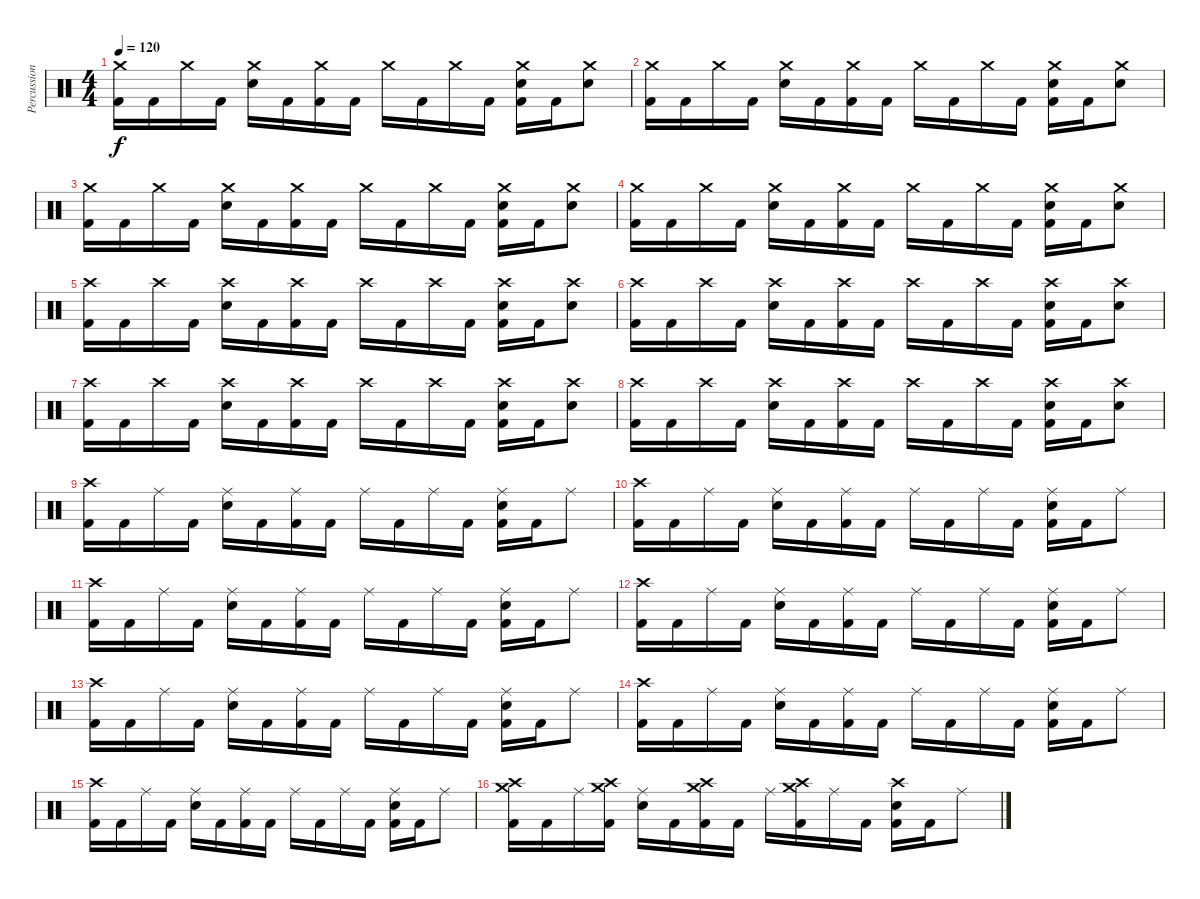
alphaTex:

\track ("Percussions" "Percussion") {instrument percussion}
\staff {score}
\articulation defaults
\ts (4 4)
\tempo 120
\clef neutral
\ks c
("Crash medium (hit)" "Kick (hit) 2").16{dy f} "Kick (hit) 2".16 "Crash medium (hit)".16 "Kick (hit) 2".16 ("Electric Snare (hit)" "Crash medium (hit)").16 "Kick (hit) 2".16 ("Crash medium (hit)" "Kick (hit) 2").16 "Kick (hit) 2".16 "Crash medium (hit)".16 "Kick (hit) 2".16 "Crash medium (hit)".16 "Kick (hit) 2".16 ("Electric Snare (hit)" "Crash medium (hit)" "Kick (hit) 2").16 "Kick (hit) 2".16 ("Electric Snare (hit)" "Crash medium (hit)").8 |
("Crash medium (hit)" "Kick (hit) 2").16 "Kick (hit) 2".16 "Crash medium (hit)".16 "Kick (hit) 2".16 ("Electric Snare (hit)" "Crash medium (hit)").16 "Kick (hit) 2".16 ("Crash medium (hit)" "Kick (hit) 2").16 "Kick (hit) 2".16 "Crash medium (hit)".16 "Kick (hit) 2".16 "Crash medium (hit)".16 "Kick (hit) 2".16 ("Electric Snare (hit)" "Crash medium (hit)" "Kick (hit) 2").16 "Kick (hit) 2".16 ("Electric Snare (hit)" "Crash medium (hit)").8 |
("Crash medium (hit)" "Kick (hit) 2").16 "Kick (hit) 2".16 "Crash medium (hit)".16 "Kick (hit) 2".16 ("Electric Snare (hit)" "Crash medium (hit)").16 "Kick (hit) 2".16 ("Crash medium (hit)" "Kick (hit) 2").16 "Kick (hit) 2".16 "Crash medium (hit)".16 "Kick (hit) 2".16 "Crash medium (hit)".16 "Kick (hit) 2".16 ("Electric Snare (hit)" "Crash medium (hit)" "Kick (hit) 2").16 "Kick (hit) 2".16 ("Electric Snare (hit)" "Crash medium (hit)").8 |
("Crash medium (hit)" "Kick (hit) 2").16 "Kick (hit) 2".16 "Crash medium (hit)".16 "Kick (hit) 2".16 ("Electric Snare (hit)" "Crash medium (hit)").16 "Kick (hit) 2".16 ("Crash medium (hit)" "Kick (hit) 2").16 "Kick (hit) 2".16 "Crash medium (hit)".16 "Kick (hit) 2".16 "Crash medium (hit)".16 "Kick (hit) 2".16 ("Electric Snare (hit)" "Crash medium (hit)" "Kick (hit) 2").16 "Kick (hit) 2".16 ("Electric Snare (hit)" "Crash medium (hit)").8 |
("Crash high (hit)" "Kick (hit) 2").16 "Kick (hit) 2".16 "Crash high (hit)".16 "Kick (hit) 2".16 ("Electric Snare (hit)" "Crash high (hit)").16 "Kick (hit) 2".16 ("Crash high (hit)" "Kick (hit) 2").16 "Kick (hit) 2".16 "Crash high (hit)".16 "Kick (hit) 2".16 "Crash high (hit)".16 "Kick (hit) 2".16 ("Electric Snare (hit)" "Crash high (hit)" "Kick (hit) 2").16 "Kick (hit) 2".16 ("Electric Snare (hit)" "Crash high (hit)").8 |
("Crash high (hit)" "Kick (hit) 2").16 "Kick (hit) 2".16 "Crash high (hit)".16 "Kick (hit) 2".16 ("Electric Snare (hit)" "Crash high (hit)").16 "Kick (hit) 2".16 ("Crash high (hit)" "Kick (hit) 2").16 "Kick (hit) 2".16 "Crash high (hit)".16 "Kick (hit) 2".16 "Crash high (hit)".16 "Kick (hit) 2".16 ("Electric Snare (hit)" "Crash high (hit)" "Kick (hit) 2").16 "Kick (hit) 2".16 ("Electric Snare (hit)" "Crash high (hit)").8 |
("Crash high (hit)" "Kick (hit) 2").16 "Kick (hit) 2".16 "Crash high (hit)".16 "Kick (hit) 2".16 ("Electric Snare (hit)" "Crash high (hit)").16 "Kick (hit) 2".16 ("Crash high (hit)" "Kick (hit) 2").16 "Kick (hit) 2".16 "Crash high (hit)".16 "Kick (hit) 2".16 "Crash high (hit)".16 "Kick (hit) 2".16 ("Electric Snare (hit)" "Crash high (hit)" "Kick (hit) 2").16 "Kick (hit) 2".16 ("Electric Snare (hit)" "Crash high (hit)").8 |
("Crash high (hit)" "Kick (hit) 2").16 "Kick (hit) 2".16 "Crash high (hit)".16 "Kick (hit) 2".16 ("Electric Snare (hit)" "Crash high (hit)").16 "Kick (hit) 2".16 ("Crash high (hit)" "Kick (hit) 2").16 "Kick (hit) 2".16 "Crash high (hit)".16 "Kick (hit) 2".16 "Crash high (hit)".16 "Kick (hit) 2".16 ("Electric Snare (hit)" "Crash high (hit)" "Kick (hit) 2").16 "Kick (hit) 2".16 ("Electric Snare (hit)" "Crash high (hit)").8 |
("Crash high (hit)" "Kick (hit) 2").16 "Kick (hit) 2".16 "Ride (middle)".16 "Kick (hit) 2".16 ("Electric Snare (hit)" "Ride (middle)").16 "Kick (hit) 2".16 ("Ride (middle)" "Kick (hit) 2").16 "Kick (hit) 2".16 "Ride (middle)".16 "Kick (hit) 2".16 "Ride (middle)".16 "Kick (hit) 2".16 ("Electric Snare (hit)" "Ride (middle)" "Kick (hit) 2").16 "Kick (hit) 2".16 "Ride (middle)".8 |
("Crash high (hit)" "Kick (hit) 2").16 "Kick (hit) 2".16 "Ride (middle)".16 "Kick (hit) 2".16 ("Electric Snare (hit)" "Ride (middle)").16 "Kick (hit) 2".16 ("Ride (middle)" "Kick (hit) 2").16 "Kick (hit) 2".16 "Ride (middle)".16 "Kick (hit) 2".16 "Ride (middle)".16 "Kick (hit) 2".16 ("Electric Snare (hit)" "Ride (middle)" "Kick (hit) 2").16 "Kick (hit) 2".16 "Ride (middle)".8 |
("Crash high (hit)" "Kick (hit) 2").16 "Kick (hit) 2".16 "Ride (middle)".16 "Kick (hit) 2".16 ("Electric Snare (hit)" "Ride (middle)").16 "Kick (hit) 2".16 ("Ride (middle)" "Kick (hit) 2").16 "Kick (hit) 2".16 "Ride (middle)".16 "Kick (hit) 2".16 "Ride (middle)".16 "Kick (hit) 2".16 ("Electric Snare (hit)" "Ride (middle)" "Kick (hit) 2").16 "Kick (hit) 2".16 "Ride (middle)".8 |
("Crash high (hit)" "Kick (hit) 2").16 "Kick (hit) 2".16 "Ride (middle)".16 "Kick (hit) 2".16 ("Electric Snare (hit)" "Ride (middle)").16 "Kick (hit) 2".16 ("Ride (middle)" "Kick (hit) 2").16 "Kick (hit) 2".16 "Ride (middle)".16 "Kick (hit) 2".16 "Ride (middle)".16 "Kick (hit) 2".16 ("Electric Snare (hit)" "Ride (middle)" "Kick (hit) 2").16 "Kick (hit) 2".16 "Ride (middle)".8 |
("Crash high (hit)" "Kick (hit) 2").16 "Kick (hit) 2".16 "Ride (middle)".16 "Kick (hit) 2".16 ("Electric Snare (hit)" "Ride (middle)").16 "Kick (hit) 2".16 ("Ride (middle)" "Kick (hit) 2").16 "Kick (hit) 2".16 "Ride (middle)".16 "Kick (hit) 2".16 "Ride (middle)".16 "Kick (hit) 2".16 ("Electric Snare (hit)" "Ride (middle)" "Kick (hit) 2").16 "Kick (hit) 2".16 "Ride (middle)".8 |
("Crash high (hit)" "Kick (hit) 2").16 "Kick (hit) 2".16 "Ride (middle)".16 "Kick (hit) 2".16 ("Electric Snare (hit)" "Ride (middle)").16 "Kick (hit) 2".16 ("Ride (middle)" "Kick (hit) 2").16 "Kick (hit) 2".16 "Ride (middle)".16 "Kick (hit) 2".16 "Ride (middle)".16 "Kick (hit) 2".16 ("Electric Snare (hit)" "Ride (middle)" "Kick (hit) 2").16 "Kick (hit) 2".16 "Ride (middle)".8 |
("Crash high (hit)" "Kick (hit) 2").16 "Kick (hit) 2".16 "Ride (middle)".16 "Kick (hit) 2".16 ("Electric Snare (hit)" "Ride (middle)").16 "Kick (hit) 2".16 ("Ride (middle)" "Kick (hit) 2").16 "Kick (hit) 2".16 "Ride (middle)".16 "Kick (hit) 2".16 "Ride (middle)".16 "Kick (hit) 2".16 ("Electric Snare (hit)" "Ride (middle)" "Kick (hit) 2").16 "Kick (hit) 2".16 "Ride (middle)".8 |
("Crash medium (hit)" "Crash high (hit)" "Kick (hit) 2").16 "Kick (hit) 2".16 "Ride (middle)".16 ("Crash medium (hit)" "Crash high (hit)" "Kick (hit) 2").16 ("Electric Snare (hit)" "Ride (middle)").16 "Kick (hit) 2".16 ("Crash medium (hit)" "Crash high (hit)" "Kick (hit) 2").16 "Kick (hit) 2".16 "Ride (middle)".16 ("Crash medium (hit)" "Crash high (hit)" "Kick (hit) 2").16 "Ride (middle)".16 "Kick (hit) 2".16 ("Electric Snare (hit)" "Crash high (hit)" "Kick (hit) 2").16 "Kick (hit) 2".16 "Ride (middle)".8
